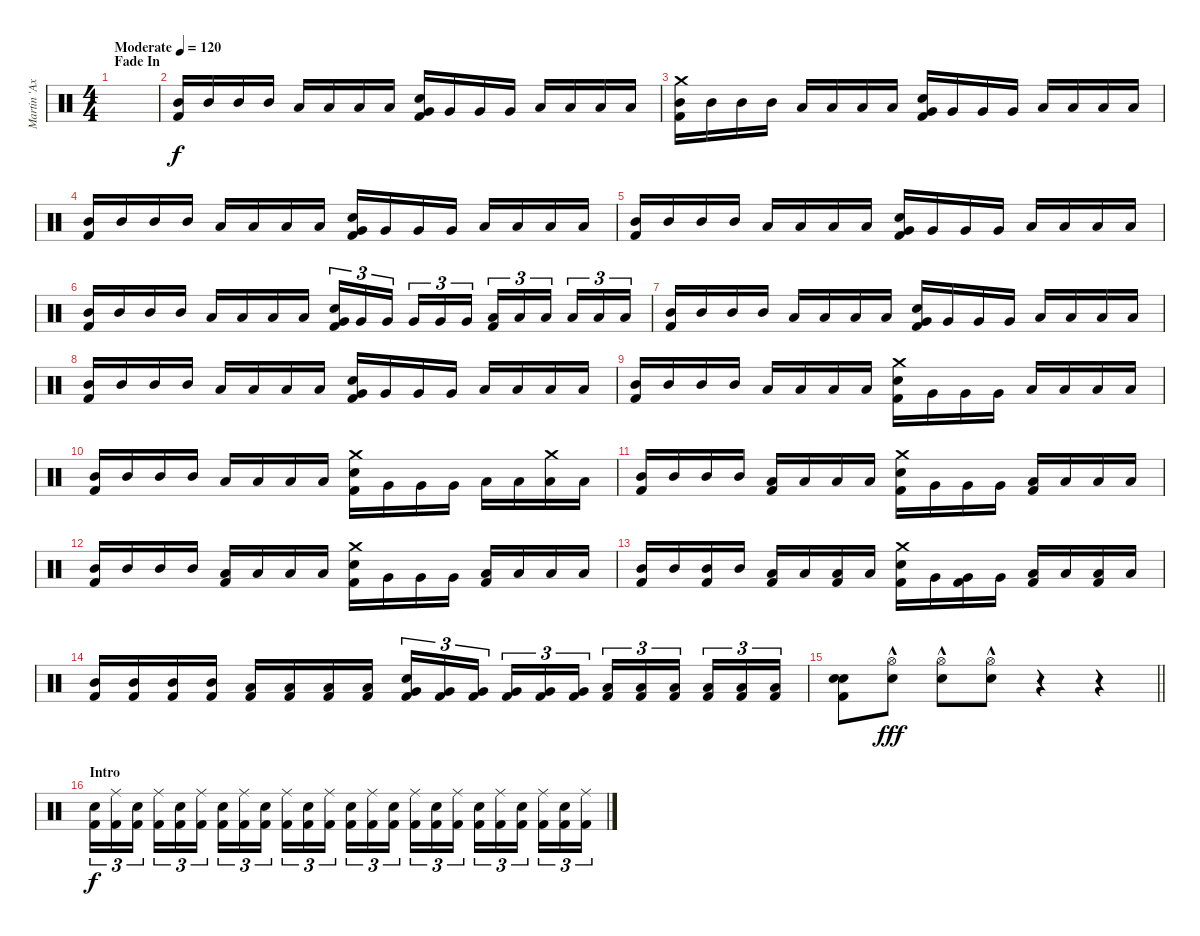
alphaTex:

\track ("Martin 'Axe' Axenrot" "Martin 'Ax") {instrument percussion}
\staff {score}
\articulation defaults
\ts (4 4)
\section ("" "Fade In")
\tempo (120 "Moderate")
\clef neutral
\ks c
|
("Mid Tom (hit)" "Kick (hit) 2").16{volume 4} "Mid Tom (hit)".16 "Mid Tom (hit)".16 "Mid Tom (hit)".16 "Low Tom (hit)".16 "Low Tom (hit)".16 "Low Tom (hit)".16 "Low Tom (hit)".16 ("Snare (hit) 2" "Very Low Tom (hit)" "Kick (hit) 2").16 "Very Low Tom (hit)".16 "Very Low Tom (hit)".16 "Very Low Tom (hit)".16 "Low Floor Tom (hit)".16 "Low Floor Tom (hit)".16 "Low Floor Tom (hit)".16 "Low Floor Tom (hit)".16 |
("Crash medium (hit)" "Mid Tom (hit)" "Kick (hit) 2").16{volume 6} "Mid Tom (hit)".16 "Mid Tom (hit)".16 "Mid Tom (hit)".16 "Low Tom (hit)".16 "Low Tom (hit)".16 "Low Tom (hit)".16 "Low Tom (hit)".16 ("Snare (hit) 2" "Very Low Tom (hit)" "Kick (hit) 2").16 "Very Low Tom (hit)".16 "Very Low Tom (hit)".16 "Very Low Tom (hit)".16 "Low Floor Tom (hit)".16 "Low Floor Tom (hit)".16 "Low Floor Tom (hit)".16 "Low Floor Tom (hit)".16 |
("Mid Tom (hit)" "Kick (hit) 2").16{volume 8} "Mid Tom (hit)".16 "Mid Tom (hit)".16 "Mid Tom (hit)".16 "Low Tom (hit)".16 "Low Tom (hit)".16 "Low Tom (hit)".16 "Low Tom (hit)".16 ("Snare (hit) 2" "Very Low Tom (hit)" "Kick (hit) 2").16 "Very Low Tom (hit)".16 "Very Low Tom (hit)".16 "Very Low Tom (hit)".16 "Low Floor Tom (hit)".16 "Low Floor Tom (hit)".16 "Low Floor Tom (hit)".16 "Low Floor Tom (hit)".16 |
("Mid Tom (hit)" "Kick (hit) 2").16{volume 9} "Mid Tom (hit)".16 "Mid Tom (hit)".16 "Mid Tom (hit)".16 "Low Tom (hit)".16 "Low Tom (hit)".16 "Low Tom (hit)".16 "Low Tom (hit)".16 ("Snare (hit) 2" "Very Low Tom (hit)" "Kick (hit) 2").16 "Very Low Tom (hit)".16 "Very Low Tom (hit)".16 "Very Low Tom (hit)".16 "Low Floor Tom (hit)".16 "Low Floor Tom (hit)".16 "Low Floor Tom (hit)".16 "Low Floor Tom (hit)".16 |
("Mid Tom (hit)" "Kick (hit) 2").16{volume 10} "Mid Tom (hit)".16 "Mid Tom (hit)".16 "Mid Tom (hit)".16 "Low Tom (hit)".16 "Low Tom (hit)".16 "Low Tom (hit)".16 "Low Tom (hit)".16 ("Snare (hit) 2" "Very Low Tom (hit)" "Kick (hit) 2").16{tu (3 2)} "Very Low Tom (hit)".16{tu (3 2)} "Very Low Tom (hit)".16{tu (3 2) beam splitsecondary} "Very Low Tom (hit)".16{tu (3 2)} "Very Low Tom (hit)".16{tu (3 2)} "Very Low Tom (hit)".16{tu (3 2)} ("Low Floor Tom (hit)" "Kick (hit) 2").16{tu (3 2)} "Low Floor Tom (hit)".16{tu (3 2)} "Low Floor Tom (hit)".16{tu (3 2) beam splitsecondary} "Low Floor Tom (hit)".16{tu (3 2)} "Low Floor Tom (hit)".16{tu (3 2)} "Low Floor Tom (hit)".16{tu (3 2)} |
("Mid Tom (hit)" "Kick (hit) 2").16 "Mid Tom (hit)".16 "Mid Tom (hit)".16 "Mid Tom (hit)".16 "Low Tom (hit)".16 "Low Tom (hit)".16 "Low Tom (hit)".16 "Low Tom (hit)".16 ("Snare (hit) 2" "Very Low Tom (hit)" "Kick (hit) 2").16 "Very Low Tom (hit)".16 "Very Low Tom (hit)".16 "Very Low Tom (hit)".16 "Low Floor Tom (hit)".16 "Low Floor Tom (hit)".16 "Low Floor Tom (hit)".16 "Low Floor Tom (hit)".16 |
("Mid Tom (hit)" "Kick (hit) 2").16 "Mid Tom (hit)".16 "Mid Tom (hit)".16 "Mid Tom (hit)".16 "Low Tom (hit)".16 "Low Tom (hit)".16 "Low Tom (hit)".16 "Low Tom (hit)".16 ("Snare (hit) 2" "Very Low Tom (hit)" "Kick (hit) 2").16 "Very Low Tom (hit)".16 "Very Low Tom (hit)".16 "Very Low Tom (hit)".16 "Low Floor Tom (hit)".16 "Low Floor Tom (hit)".16 "Low Floor Tom (hit)".16 "Low Floor Tom (hit)".16 |
("Mid Tom (hit)" "Kick (hit) 2").16 "Mid Tom (hit)".16 "Mid Tom (hit)".16 "Mid Tom (hit)".16 "Low Tom (hit)".16 "Low Tom (hit)".16 "Low Tom (hit)".16 "Low Tom (hit)".16 ("Crash medium (hit)" "Snare (hit) 2" "Kick (hit) 2").16 "Very Low Tom (hit)".16 "Very Low Tom (hit)".16 "Very Low Tom (hit)".16 "Low Floor Tom (hit)".16 "Low Floor Tom (hit)".16 "Low Floor Tom (hit)".16 "Low Floor Tom (hit)".16 |
("Mid Tom (hit)" "Kick (hit) 2").16 "Mid Tom (hit)".16 "Mid Tom (hit)".16 "Mid Tom (hit)".16 "Low Tom (hit)".16 "Low Tom (hit)".16 "Low Tom (hit)".16 "Low Tom (hit)".16 ("Crash medium (hit)" "Snare (hit) 2" "Kick (hit) 2").16 "Very Low Tom (hit)".16 "Very Low Tom (hit)".16 "Very Low Tom (hit)".16 "Low Floor Tom (hit)".16 "Low Floor Tom (hit)".16 ("Crash medium (hit)" "Low Floor Tom (hit)").16 "Low Floor Tom (hit)".16 |
("Mid Tom (hit)" "Kick (hit) 2").16 "Mid Tom (hit)".16 "Mid Tom (hit)".16 "Mid Tom (hit)".16 ("Low Tom (hit)" "Kick (hit) 2").16 "Low Tom (hit)".16 "Low Tom (hit)".16 "Low Tom (hit)".16 ("Crash medium (hit)" "Snare (hit) 2" "Kick (hit) 2").16 "Very Low Tom (hit)".16 "Very Low Tom (hit)".16 "Very Low Tom (hit)".16 ("Low Floor Tom (hit)" "Kick (hit) 2").16 "Low Floor Tom (hit)".16 "Low Floor Tom (hit)".16 "Low Floor Tom (hit)".16 |
("Mid Tom (hit)" "Kick (hit) 2").16 "Mid Tom (hit)".16 "Mid Tom (hit)".16 "Mid Tom (hit)".16 ("Low Tom (hit)" "Kick (hit) 2").16 "Low Tom (hit)".16 "Low Tom (hit)".16 "Low Tom (hit)".16 ("Snare (hit) 2" "Crash medium (hit)" "Kick (hit) 2").16 "Very Low Tom (hit)".16 "Very Low Tom (hit)".16 "Very Low Tom (hit)".16 ("Low Floor Tom (hit)" "Kick (hit) 2").16 "Low Floor Tom (hit)".16 "Low Floor Tom (hit)".16 "Low Floor Tom (hit)".16 |
("Mid Tom (hit)" "Kick (hit) 2").16 "Mid Tom (hit)".16 ("Mid Tom (hit)" "Kick (hit) 2").16 "Mid Tom (hit)".16 ("Low Tom (hit)" "Kick (hit) 2").16 "Low Tom (hit)".16 ("Low Tom (hit)" "Kick (hit) 2").16 "Low Tom (hit)".16 ("Crash medium (hit)" "Snare (hit) 2" "Kick (hit) 2").16 "Very Low Tom (hit)".16 ("Very Low Tom (hit)" "Kick (hit) 2").16 "Very Low Tom (hit)".16 ("Low Floor Tom (hit)" "Kick (hit) 2").16 "Low Floor Tom (hit)".16 ("Low Floor Tom (hit)" "Kick (hit) 2").16 "Low Floor Tom (hit)".16 |
("Mid Tom (hit)" "Kick (hit) 2").16{volume 10} ("Mid Tom (hit)" "Kick (hit) 2").16 ("Mid Tom (hit)" "Kick (hit) 2").16 ("Mid Tom (hit)" "Kick (hit) 2").16 ("Low Tom (hit)" "Kick (hit) 2").16 ("Low Tom (hit)" "Kick (hit) 2").16 ("Low Tom (hit)" "Kick (hit) 2").16 ("Low Tom (hit)" "Kick (hit) 2").16 ("Snare (hit) 2" "Very Low Tom (hit)" "Kick (hit) 2").16{tu (3 2)} ("Very Low Tom (hit)" "Kick (hit) 2").16{tu (3 2)} ("Very Low Tom (hit)" "Kick (hit) 2").16{tu (3 2) beam splitsecondary} ("Very Low Tom (hit)" "Kick (hit) 2").16{tu (3 2)} ("Very Low Tom (hit)" "Kick (hit) 2").16{tu (3 2)} ("Very Low Tom (hit)" "Kick (hit) 2").16{tu (3 2)} ("Low Floor Tom (hit)" "Kick (hit) 2").16{tu (3 2)} ("Low Floor Tom (hit)" "Kick (hit) 2").16{tu (3 2)} ("Low Floor Tom (hit)" "Kick (hit) 2").16{tu (3 2) beam splitsecondary} ("Low Floor Tom (hit)" "Kick (hit) 2").16{tu (3 2)} ("Low Floor Tom (hit)" "Kick (hit) 2").16{tu (3 2)} ("Low Floor Tom (hit)" "Kick (hit) 2").16{tu (3 2)} |
\barLineRight lightlight
("Snare (hit) 2" "Snare (hit) 2" "Kick (hit) 2").8 ("Hi-Hat (open)"{hac} "Snare (hit) 2").8{dy fff} ("Hi-Hat (open)"{hac} "Snare (hit) 2").8 ("Hi-Hat (open)"{hac} "Snare (hit) 2").8 r.4 r.4 |
\section ("" "Intro")
("Snare (hit) 2" "Kick (hit) 2").16{tu (3 2) dy f} ("Ride (middle)" "Kick (hit) 2").16{tu (3 2)} ("Snare (hit) 2" "Kick (hit) 2").16{tu (3 2) beam splitsecondary} ("Ride (middle)" "Kick (hit) 2").16{tu (3 2)} ("Snare (hit) 2" "Kick (hit) 2").16{tu (3 2)} ("Ride (middle)" "Kick (hit) 2").16{tu (3 2)} ("Snare (hit) 2" "Kick (hit) 2").16{tu (3 2)} ("Ride (middle)" "Kick (hit) 2").16{tu (3 2)} ("Snare (hit) 2" "Kick (hit) 2").16{tu (3 2) beam splitsecondary} ("Ride (middle)" "Kick (hit) 2").16{tu (3 2)} ("Snare (hit) 2" "Kick (hit) 2").16{tu (3 2)} ("Ride (middle)" "Kick (hit) 2").16{tu (3 2)} ("Snare (hit) 2" "Kick (hit) 2").16{tu (3 2)} ("Ride (middle)" "Kick (hit) 2").16{tu (3 2)} ("Snare (hit) 2" "Kick (hit) 2").16{tu (3 2) beam splitsecondary} ("Ride (middle)" "Kick (hit) 2").16{tu (3 2)} ("Snare (hit) 2" "Kick (hit) 2").16{tu (3 2)} ("Ride (middle)" "Kick (hit) 2").16{tu (3 2)} ("Snare (hit) 2" "Kick (hit) 2").16{tu (3 2)} ("Ride (middle)" "Kick (hit) 2").16{tu (3 2)} ("Snare (hit) 2" "Kick (hit) 2").16{tu (3 2) beam splitsecondary} ("Ride (middle)" "Kick (hit) 2").16{tu (3 2)} ("Snare (hit) 2" "Kick (hit) 2").16{tu (3 2)} ("Ride (middle)" "Kick (hit) 2").16{tu (3 2)}
